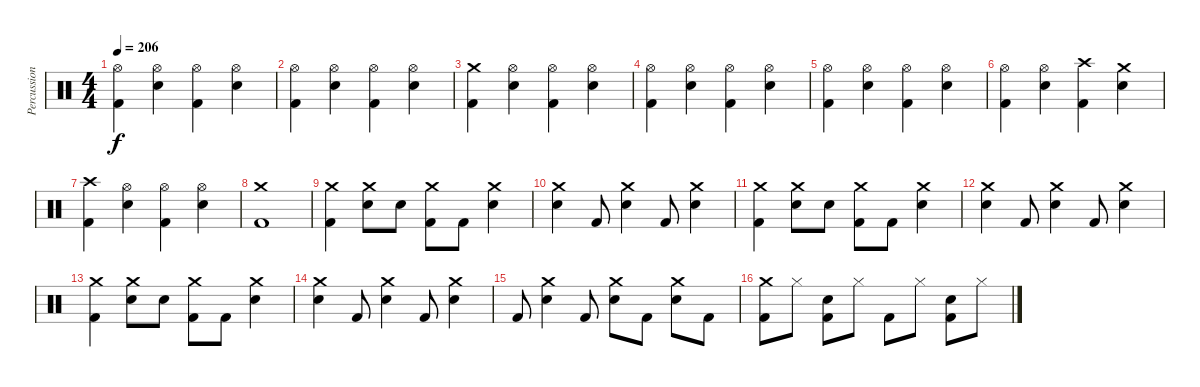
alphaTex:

\track ("Percussion" "Percussion") {instrument percussion}
\staff {score}
\articulation defaults
\ts (4 4)
\tempo 206
\clef neutral
\ks c
("Hi-Hat (open)" "Kick (hit) 2").4{dy f} ("Hi-Hat (open)" "Electric Snare (hit)").4 ("Hi-Hat (open)" "Kick (hit) 2").4 ("Hi-Hat (open)" "Electric Snare (hit)").4 |
("Hi-Hat (open)" "Kick (hit) 2").4 ("Hi-Hat (open)" "Electric Snare (hit)").4 ("Hi-Hat (open)" "Kick (hit) 2").4 ("Hi-Hat (open)" "Electric Snare (hit)").4 |
("Crash medium (hit)" "Kick (hit) 2").4 ("Hi-Hat (open)" "Electric Snare (hit)").4 ("Hi-Hat (open)" "Kick (hit) 2").4 ("Hi-Hat (open)" "Electric Snare (hit)").4 |
("Hi-Hat (open)" "Kick (hit) 2").4 ("Hi-Hat (open)" "Electric Snare (hit)").4 ("Hi-Hat (open)" "Kick (hit) 2").4 ("Hi-Hat (open)" "Electric Snare (hit)").4 |
("Hi-Hat (open)" "Kick (hit) 2").4 ("Hi-Hat (open)" "Electric Snare (hit)").4 ("Hi-Hat (open)" "Kick (hit) 2").4 ("Hi-Hat (open)" "Electric Snare (hit)").4 |
("Hi-Hat (open)" "Kick (hit) 2").4 ("Hi-Hat (open)" "Electric Snare (hit)").4 ("Crash high (hit)" "Kick (hit) 2").4 ("Crash medium (hit)" "Electric Snare (hit)").4 |
("Crash high (hit)" "Kick (hit) 2").4 ("Hi-Hat (open)" "Electric Snare (hit)").4 ("Hi-Hat (open)" "Kick (hit) 2").4 ("Hi-Hat (open)" "Electric Snare (hit)").4 |
("Crash medium (hit)" "Kick (hit) 2").1 |
("Crash medium (hit)" "Kick (hit) 2").4 ("Crash medium (hit)" "Electric Snare (hit)").8 "Electric Snare (hit)".8 ("Crash medium (hit)" "Kick (hit) 2").8 "Kick (hit) 2".8 ("Crash medium (hit)" "Electric Snare (hit)").4 |
("Crash medium (hit)" "Electric Snare (hit)").4 "Kick (hit) 2".8 ("Crash medium (hit)" "Electric Snare (hit)").4 "Kick (hit) 2".8 ("Crash medium (hit)" "Electric Snare (hit)").4 |
("Crash medium (hit)" "Kick (hit) 2").4 ("Crash medium (hit)" "Electric Snare (hit)").8 "Electric Snare (hit)".8 ("Crash medium (hit)" "Kick (hit) 2").8 "Kick (hit) 2".8 ("Crash medium (hit)" "Electric Snare (hit)").4 |
("Crash medium (hit)" "Electric Snare (hit)").4 "Kick (hit) 2".8 ("Crash medium (hit)" "Electric Snare (hit)").4 "Kick (hit) 2".8 ("Crash medium (hit)" "Electric Snare (hit)").4 |
("Crash medium (hit)" "Kick (hit) 2").4 ("Crash medium (hit)" "Electric Snare (hit)").8 "Electric Snare (hit)".8 ("Crash medium (hit)" "Kick (hit) 2").8 "Kick (hit) 2".8 ("Crash medium (hit)" "Electric Snare (hit)").4 |
("Crash medium (hit)" "Electric Snare (hit)").4 "Kick (hit) 2".8 ("Crash medium (hit)" "Electric Snare (hit)").4 "Kick (hit) 2".8 ("Crash medium (hit)" "Electric Snare (hit)").4 |
"Kick (hit) 2".8 ("Crash medium (hit)" "Electric Snare (hit)").4 "Kick (hit) 2".8 ("Crash medium (hit)" "Electric Snare (hit)").8 "Kick (hit) 2".8 ("Crash medium (hit)" "Electric Snare (hit)").8 "Kick (hit) 2".8 |
("Crash medium (hit)" "Kick (hit) 2").8 "Hi-Hat (closed)".8 ("Electric Snare (hit)" "Kick (hit) 2").8 "Hi-Hat (closed)".8 "Kick (hit) 2".8 "Hi-Hat (closed)".8 ("Electric Snare (hit)" "Kick (hit) 2").8 "Hi-Hat (closed)".8
